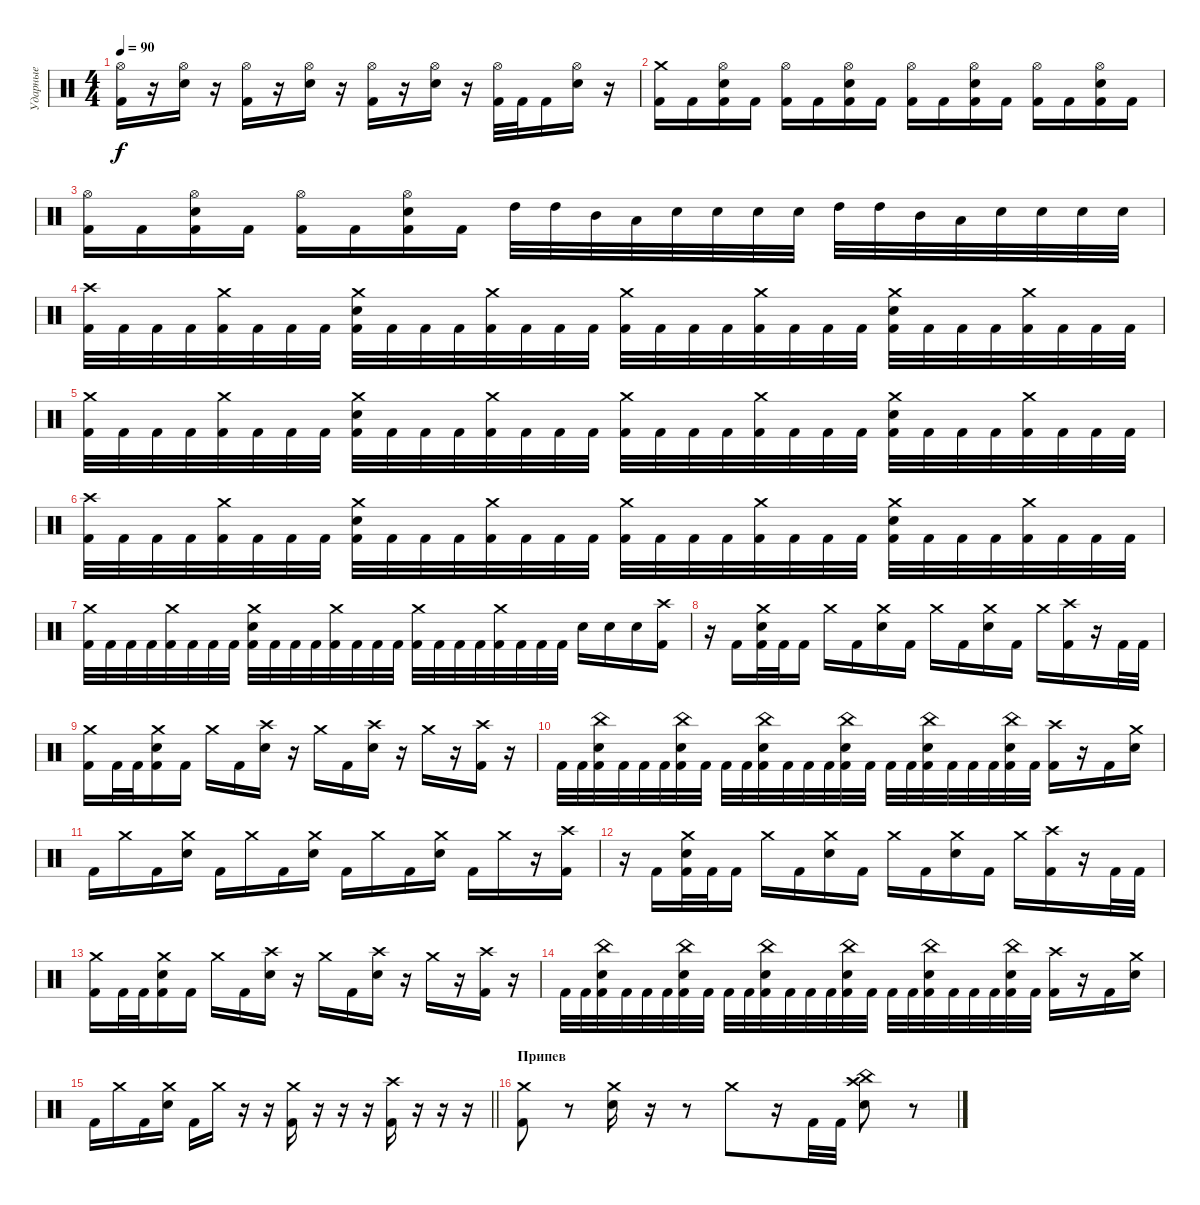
\track ("Ударные" "Ударные") {instrument percussion}
\staff {score}
\articulation defaults
\ts (4 4)
\tempo 90
\clef neutral
\ks c
("Hi-Hat (open)" "Kick (hit) 2").16{dy f} r.16 ("Hi-Hat (open)" "Electric Snare (hit)").16 r.16 ("Hi-Hat (open)" "Kick (hit) 2").16 r.16 ("Hi-Hat (open)" "Electric Snare (hit)").16 r.16 ("Hi-Hat (open)" "Kick (hit) 2").16 r.16 ("Hi-Hat (open)" "Electric Snare (hit)").16 r.16 ("Hi-Hat (open)" "Kick (hit) 2").32 "Kick (hit) 2".32 "Kick (hit) 2".16 ("Hi-Hat (open)" "Electric Snare (hit)").16 r.16 |
("Crash medium (hit)" "Kick (hit) 2").16 "Kick (hit) 2".16 ("Hi-Hat (open)" "Electric Snare (hit)" "Kick (hit) 2").16 "Kick (hit) 2".16 ("Hi-Hat (open)" "Kick (hit) 2").16 "Kick (hit) 2".16 ("Hi-Hat (open)" "Electric Snare (hit)" "Kick (hit) 2").16 "Kick (hit) 2".16 ("Hi-Hat (open)" "Kick (hit) 2").16 "Kick (hit) 2".16 ("Hi-Hat (open)" "Electric Snare (hit)" "Kick (hit) 2").16 "Kick (hit) 2".16 ("Hi-Hat (open)" "Kick (hit) 2").16 "Kick (hit) 2".16 ("Hi-Hat (open)" "Electric Snare (hit)" "Kick (hit) 2").16 "Kick (hit) 2".16 |
("Hi-Hat (open)" "Kick (hit) 2").16 "Kick (hit) 2".16 ("Hi-Hat (open)" "Electric Snare (hit)" "Kick (hit) 2").16 "Kick (hit) 2".16 ("Hi-Hat (open)" "Kick (hit) 2").16 "Kick (hit) 2".16 ("Hi-Hat (open)" "Electric Snare (hit)" "Kick (hit) 2").16 "Kick (hit) 2".16 "High Tom (hit)".32 "High Tom (hit)".32 "Mid Tom (hit)".32 "Low Tom (hit)".32 "Electric Snare (hit)".32 "Electric Snare (hit)".32 "Electric Snare (hit)".32 "Electric Snare (hit)".32 "High Tom (hit)".32 "High Tom (hit)".32 "Mid Tom (hit)".32 "Low Tom (hit)".32 "Electric Snare (hit)".32 "Electric Snare (hit)".32 "Electric Snare (hit)".32 "Electric Snare (hit)".32 |
("Crash high (hit)" "Kick (hit) 2").32 "Kick (hit) 2".32 "Kick (hit) 2".32 "Kick (hit) 2".32 ("Crash medium (hit)" "Kick (hit) 2").32 "Kick (hit) 2".32 "Kick (hit) 2".32 "Kick (hit) 2".32 ("Crash medium (hit)" "Electric Snare (hit)" "Kick (hit) 2").32 "Kick (hit) 2".32 "Kick (hit) 2".32 "Kick (hit) 2".32 ("Crash medium (hit)" "Kick (hit) 2").32 "Kick (hit) 2".32 "Kick (hit) 2".32 "Kick (hit) 2".32 ("Crash medium (hit)" "Kick (hit) 2").32 "Kick (hit) 2".32 "Kick (hit) 2".32 "Kick (hit) 2".32 ("Crash medium (hit)" "Kick (hit) 2").32 "Kick (hit) 2".32 "Kick (hit) 2".32 "Kick (hit) 2".32 ("Crash medium (hit)" "Electric Snare (hit)" "Kick (hit) 2").32 "Kick (hit) 2".32 "Kick (hit) 2".32 "Kick (hit) 2".32 ("Crash medium (hit)" "Kick (hit) 2").32 "Kick (hit) 2".32 "Kick (hit) 2".32 "Kick (hit) 2".32 |
("Crash medium (hit)" "Kick (hit) 2").32 "Kick (hit) 2".32 "Kick (hit) 2".32 "Kick (hit) 2".32 ("Crash medium (hit)" "Kick (hit) 2").32 "Kick (hit) 2".32 "Kick (hit) 2".32 "Kick (hit) 2".32 ("Crash medium (hit)" "Electric Snare (hit)" "Kick (hit) 2").32 "Kick (hit) 2".32 "Kick (hit) 2".32 "Kick (hit) 2".32 ("Crash medium (hit)" "Kick (hit) 2").32 "Kick (hit) 2".32 "Kick (hit) 2".32 "Kick (hit) 2".32 ("Crash medium (hit)" "Kick (hit) 2").32 "Kick (hit) 2".32 "Kick (hit) 2".32 "Kick (hit) 2".32 ("Crash medium (hit)" "Kick (hit) 2").32 "Kick (hit) 2".32 "Kick (hit) 2".32 "Kick (hit) 2".32 ("Crash medium (hit)" "Electric Snare (hit)" "Kick (hit) 2").32 "Kick (hit) 2".32 "Kick (hit) 2".32 "Kick (hit) 2".32 ("Crash medium (hit)" "Kick (hit) 2").32 "Kick (hit) 2".32 "Kick (hit) 2".32 "Kick (hit) 2".32 |
("Crash high (hit)" "Kick (hit) 2").32 "Kick (hit) 2".32 "Kick (hit) 2".32 "Kick (hit) 2".32 ("Crash medium (hit)" "Kick (hit) 2").32 "Kick (hit) 2".32 "Kick (hit) 2".32 "Kick (hit) 2".32 ("Crash medium (hit)" "Electric Snare (hit)" "Kick (hit) 2").32 "Kick (hit) 2".32 "Kick (hit) 2".32 "Kick (hit) 2".32 ("Crash medium (hit)" "Kick (hit) 2").32 "Kick (hit) 2".32 "Kick (hit) 2".32 "Kick (hit) 2".32 ("Crash medium (hit)" "Kick (hit) 2").32 "Kick (hit) 2".32 "Kick (hit) 2".32 "Kick (hit) 2".32 ("Crash medium (hit)" "Kick (hit) 2").32 "Kick (hit) 2".32 "Kick (hit) 2".32 "Kick (hit) 2".32 ("Crash medium (hit)" "Electric Snare (hit)" "Kick (hit) 2").32 "Kick (hit) 2".32 "Kick (hit) 2".32 "Kick (hit) 2".32 ("Crash medium (hit)" "Kick (hit) 2").32 "Kick (hit) 2".32 "Kick (hit) 2".32 "Kick (hit) 2".32 |
("Crash medium (hit)" "Kick (hit) 2").32 "Kick (hit) 2".32 "Kick (hit) 2".32 "Kick (hit) 2".32 ("Crash medium (hit)" "Kick (hit) 2").32 "Kick (hit) 2".32 "Kick (hit) 2".32 "Kick (hit) 2".32 ("Crash medium (hit)" "Electric Snare (hit)" "Kick (hit) 2").32 "Kick (hit) 2".32 "Kick (hit) 2".32 "Kick (hit) 2".32 ("Crash medium (hit)" "Kick (hit) 2").32 "Kick (hit) 2".32 "Kick (hit) 2".32 "Kick (hit) 2".32 ("Crash medium (hit)" "Kick (hit) 2").32 "Kick (hit) 2".32 "Kick (hit) 2".32 "Kick (hit) 2".32 ("Crash medium (hit)" "Kick (hit) 2").32 "Kick (hit) 2".32 "Kick (hit) 2".32 "Kick (hit) 2".32 "Electric Snare (hit)".16 "Electric Snare (hit)".16 "Electric Snare (hit)".16 ("Crash high (hit)" "Kick (hit) 2").16 |
r.16 "Kick (hit) 2".16 ("Crash medium (hit)" "Electric Snare (hit)" "Kick (hit) 2").32 "Kick (hit) 2".32 "Kick (hit) 2".16 "Crash medium (hit)".16 "Kick (hit) 2".16 ("Crash medium (hit)" "Electric Snare (hit)").16 "Kick (hit) 2".16 "Crash medium (hit)".16 "Kick (hit) 2".16 ("Crash medium (hit)" "Electric Snare (hit)").16 "Kick (hit) 2".16 "Crash medium (hit)".16 ("Crash high (hit)" "Kick (hit) 2").16 r.16 "Kick (hit) 2".32 "Kick (hit) 2".32 |
("Crash medium (hit)" "Kick (hit) 2").16 "Kick (hit) 2".32 "Kick (hit) 2".32 ("Crash medium (hit)" "Electric Snare (hit)" "Kick (hit) 2").16 "Kick (hit) 2".16 "Crash medium (hit)".16 "Kick (hit) 2".16 ("Crash high (hit)" "Electric Snare (hit)").16 r.16 "Crash medium (hit)".16 "Kick (hit) 2".16 ("Crash high (hit)" "Electric Snare (hit)").16 r.16 "Crash medium (hit)".16 r.16 ("Crash high (hit)" "Kick (hit) 2").16 r.16 |
"Kick (hit) 2".32 "Kick (hit) 2".32 ("China (hit)" "Electric Snare (hit)" "Kick (hit) 2").32 "Kick (hit) 2".32 "Kick (hit) 2".32 "Kick (hit) 2".32 ("China (hit)" "Electric Snare (hit)" "Kick (hit) 2").32 "Kick (hit) 2".32 "Kick (hit) 2".32 "Kick (hit) 2".32 ("China (hit)" "Electric Snare (hit)" "Kick (hit) 2").32 "Kick (hit) 2".32 "Kick (hit) 2".32 "Kick (hit) 2".32 ("China (hit)" "Electric Snare (hit)" "Kick (hit) 2").32 "Kick (hit) 2".32 "Kick (hit) 2".32 "Kick (hit) 2".32 ("China (hit)" "Electric Snare (hit)" "Kick (hit) 2").32 "Kick (hit) 2".32 "Kick (hit) 2".32 "Kick (hit) 2".32 ("China (hit)" "Electric Snare (hit)" "Kick (hit) 2").32 "Kick (hit) 2".32 ("Crash high (hit)" "Kick (hit) 2").16 r.16 "Kick (hit) 2".16 ("Crash medium (hit)" "Electric Snare (hit)").16 |
"Kick (hit) 2".16 "Crash medium (hit)".16 "Kick (hit) 2".16 ("Crash medium (hit)" "Electric Snare (hit)").16 "Kick (hit) 2".16 "Crash medium (hit)".16 "Kick (hit) 2".16 ("Crash medium (hit)" "Electric Snare (hit)").16 "Kick (hit) 2".16 "Crash medium (hit)".16 "Kick (hit) 2".16 ("Crash medium (hit)" "Electric Snare (hit)").16 "Kick (hit) 2".16 "Crash medium (hit)".16 r.16 ("Crash high (hit)" "Kick (hit) 2").16 |
r.16 "Kick (hit) 2".16 ("Crash medium (hit)" "Electric Snare (hit)" "Kick (hit) 2").32 "Kick (hit) 2".32 "Kick (hit) 2".16 "Crash medium (hit)".16 "Kick (hit) 2".16 ("Crash medium (hit)" "Electric Snare (hit)").16 "Kick (hit) 2".16 "Crash medium (hit)".16 "Kick (hit) 2".16 ("Crash medium (hit)" "Electric Snare (hit)").16 "Kick (hit) 2".16 "Crash medium (hit)".16 ("Crash high (hit)" "Kick (hit) 2").16 r.16 "Kick (hit) 2".32 "Kick (hit) 2".32 |
("Crash medium (hit)" "Kick (hit) 2").16 "Kick (hit) 2".32 "Kick (hit) 2".32 ("Crash medium (hit)" "Electric Snare (hit)" "Kick (hit) 2").16 "Kick (hit) 2".16 "Crash medium (hit)".16 "Kick (hit) 2".16 ("Crash high (hit)" "Electric Snare (hit)").16 r.16 "Crash medium (hit)".16 "Kick (hit) 2".16 ("Crash high (hit)" "Electric Snare (hit)").16 r.16 "Crash medium (hit)".16 r.16 ("Crash high (hit)" "Kick (hit) 2").16 r.16 |
"Kick (hit) 2".32 "Kick (hit) 2".32 ("China (hit)" "Electric Snare (hit)" "Kick (hit) 2").32 "Kick (hit) 2".32 "Kick (hit) 2".32 "Kick (hit) 2".32 ("China (hit)" "Electric Snare (hit)" "Kick (hit) 2").32 "Kick (hit) 2".32 "Kick (hit) 2".32 "Kick (hit) 2".32 ("China (hit)" "Electric Snare (hit)" "Kick (hit) 2").32 "Kick (hit) 2".32 "Kick (hit) 2".32 "Kick (hit) 2".32 ("China (hit)" "Electric Snare (hit)" "Kick (hit) 2").32 "Kick (hit) 2".32 "Kick (hit) 2".32 "Kick (hit) 2".32 ("China (hit)" "Electric Snare (hit)" "Kick (hit) 2").32 "Kick (hit) 2".32 "Kick (hit) 2".32 "Kick (hit) 2".32 ("China (hit)" "Electric Snare (hit)" "Kick (hit) 2").32 "Kick (hit) 2".32 ("Crash high (hit)" "Kick (hit) 2").16 r.16 "Kick (hit) 2".16 ("Crash medium (hit)" "Electric Snare (hit)").16 |
\barLineRight lightlight "Kick (hit) 2".16 "Crash medium (hit)".16 "Kick (hit) 2".16
("Crash medium (hit)" "Electric Snare (hit)").16 "Kick (hit) 2".16 "Crash medium (hit)".16 r.16 r.16 ("Crash medium (hit)" "Kick (hit) 2").16 r.16 r.16 r.16 ("Crash high (hit)" "Kick (hit) 2").16 r.16 r.16 r.16 |
\section ("" "Припев")
("Crash medium (hit)" "Kick (hit) 2").8 r.8 ("Crash medium (hit)" "Electric Snare (hit)").16 r.16 r.8 "Crash medium (hit)".8 r.16 "Kick (hit) 2".32 "Kick (hit) 2".32 ("China (hit)" "Crash high (hit)" "Electric Snare (hit)").8 r.8
